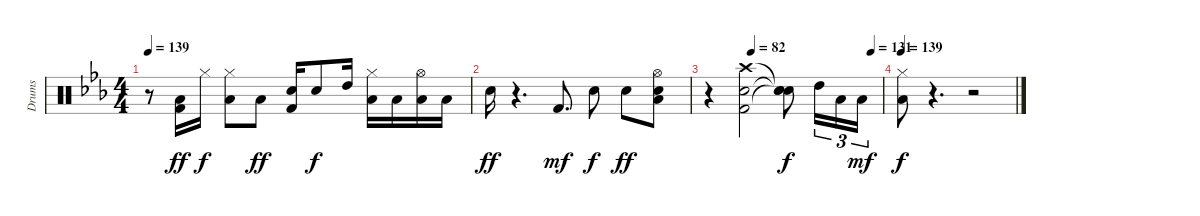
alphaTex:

\track ("Drums" "Drums") {instrument percussion}
\staff {score}
\articulation defaults
\ts (4 4)
\tempo 139
\clef neutral
\ks cminor
r.8{dy mf} ("Low Floor Tom (hit)" "Kick (hit) 2").16{dy ff} "Hi-Hat (closed)".16{dy f} ("Low Floor Tom (hit)" "Hi-Hat (closed)").8 "Low Floor Tom (hit)".8{dy ff} ("Snare (hit) 2" "Kick (hit) 2").16 "Snare (hit) 2".8{dy f} "High Tom (hit)".16 ("Low Tom (hit)" "Hi-Hat (closed)").16 "Low Tom (hit)".16 ("Low Floor Tom (hit)" "Hi-Hat (open)").16 "Low Floor Tom (hit)".16 |
"Snare (hit) 2".16{dy ff} r.4{d} "Kick (hit) 2".8{d dy mf} "Snare (hit) 2".8{dy f} "Snare (hit) 2".8{dy ff} ("Low Floor Tom (hit)" "Snare (hit) 2" "Hi-Hat (open)").8 |
\tempo (82 0.25)
\tempo (131 0.9375)
r.4 ("Crash high (hit)" "Snare (hit) 2" "Kick (hit) 2").2 ("Snare (hit)"{t} "Snare (hit)"{t} "Snare (hit)"{t}).8{dy f} "High Tom (hit)".16{tu (3 2)} "Low Tom (hit)".16{tu (3 2)} "Low Floor Tom (hit)".16{tu (3 2) dy mf} |
\tempo 139
("Hi-Hat (closed)" "Low Floor Tom (hit)").8{dy f} r.4{d} r.2
